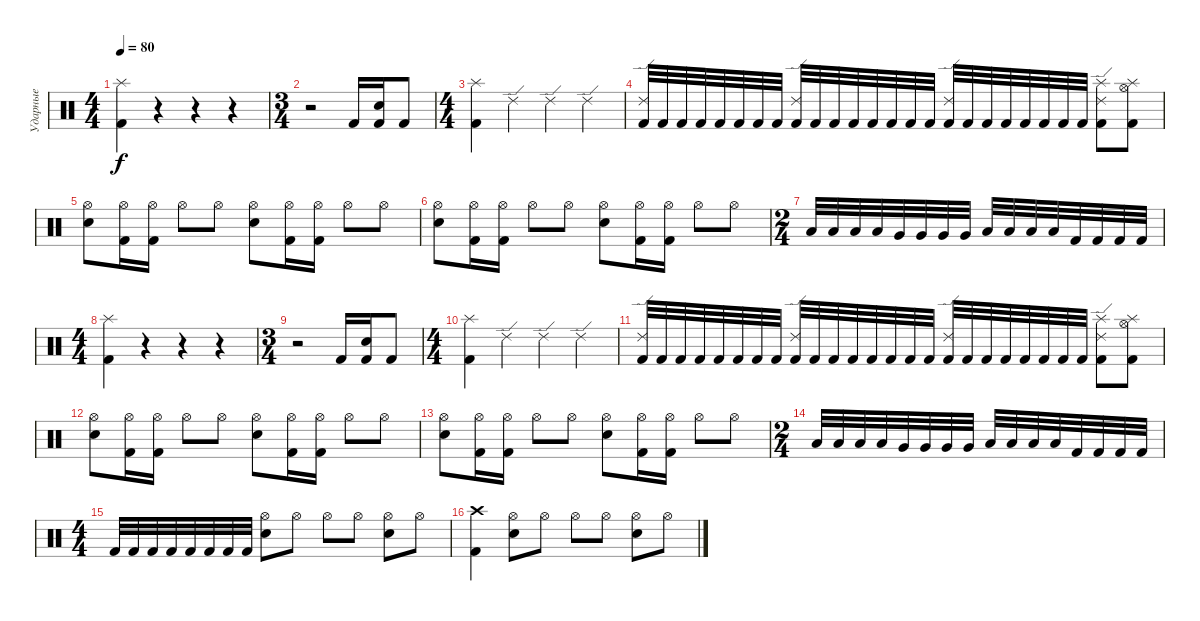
\track ("Ударные" "Ударные") {instrument percussion}
\staff {score}
\articulation defaults
\ts (4 4)
\tempo 80
\clef neutral
\ks c
("Splash (hit)" "Kick (hit) 2").4{dy f} r.4 r.4 r.4 |
\ts (3 4)
r.2 "Kick (hit) 2".16 ("Snare (hit) 2" "Kick (hit) 2").16 "Kick (hit) 2".8 |
\ts (4 4)
("Splash (hit)" "Kick (hit) 2").4 "Ride (edge) 2".4 "Ride (edge) 2".4 "Ride (edge) 2".4 |
("Kick (hit) 2" "Ride (edge) 2").32 "Kick (hit) 2".32 "Kick (hit) 2".32 "Kick (hit) 2".32 "Kick (hit) 2".32 "Kick (hit) 2".32 "Kick (hit) 2".32 "Kick (hit) 2".32 ("Kick (hit) 2" "Ride (edge) 2").32 "Kick (hit) 2".32 "Kick (hit) 2".32 "Kick (hit) 2".32 "Kick (hit) 2".32 "Kick (hit) 2".32 "Kick (hit) 2".32 "Kick (hit) 2".32 ("Kick (hit) 2" "Ride (edge) 2").32 "Kick (hit) 2".32 "Kick (hit) 2".32 "Kick (hit) 2".32 "Kick (hit) 2".32 "Kick (hit) 2".32 "Kick (hit) 2".32 "Kick (hit) 2".32 ("Splash (hit)" "Ride (edge) 2" "Kick (hit) 2").8 ("Splash (hit)" "Hi-Hat (open)" "Kick (hit) 2").8 |
("Hi-Hat (open)" "Snare (hit) 2").8 ("Hi-Hat (open)" "Kick (hit) 2").16 ("Hi-Hat (open)" "Kick (hit) 2").16 "Hi-Hat (open)".8 "Hi-Hat (open)".8 ("Hi-Hat (open)" "Snare (hit) 2").8 ("Hi-Hat (open)" "Kick (hit) 2").16 ("Hi-Hat (open)" "Kick (hit) 2").16 "Hi-Hat (open)".8 "Hi-Hat (open)".8 |
("Hi-Hat (open)" "Snare (hit) 2").8 ("Hi-Hat (open)" "Kick (hit) 2").16 ("Hi-Hat (open)" "Kick (hit) 2").16 "Hi-Hat (open)".8 "Hi-Hat (open)".8 ("Hi-Hat (open)" "Snare (hit) 2").8 ("Hi-Hat (open)" "Kick (hit) 2").16 ("Hi-Hat (open)" "Kick (hit) 2").16 "Hi-Hat (open)".8 "Hi-Hat (open)".8 |
\ts (2 4)
"Low Tom (hit)".32 "Low Tom (hit)".32 "Low Tom (hit)".32 "Low Tom (hit)".32 "Very Low Tom (hit)".32 "Very Low Tom (hit)".32 "Very Low Tom (hit)".32 "Very Low Tom (hit)".32 "Low Floor Tom (hit)".32 "Low Floor Tom (hit)".32 "Low Floor Tom (hit)".32 "Low Floor Tom (hit)".32 "Kick (hit) 2".32 "Kick (hit) 2".32 "Kick (hit) 2".32 "Kick (hit) 2".32 |
\ts (4 4)
("Splash (hit)" "Kick (hit) 2").4 r.4 r.4 r.4 |
\ts (3 4)
r.2 "Kick (hit) 2".16 ("Snare (hit) 2" "Kick (hit) 2").16 "Kick (hit) 2".8 |
\ts (4 4)
("Splash (hit)" "Kick (hit) 2").4 "Ride (edge) 2".4 "Ride (edge) 2".4 "Ride (edge) 2".4 |
("Kick (hit) 2" "Ride (edge) 2").32 "Kick (hit) 2".32 "Kick (hit) 2".32 "Kick (hit) 2".32 "Kick (hit) 2".32 "Kick (hit) 2".32 "Kick (hit) 2".32 "Kick (hit) 2".32 ("Kick (hit) 2" "Ride (edge) 2").32 "Kick (hit) 2".32 "Kick (hit) 2".32 "Kick (hit) 2".32 "Kick (hit) 2".32 "Kick (hit) 2".32 "Kick (hit) 2".32 "Kick (hit) 2".32 ("Kick (hit) 2" "Ride (edge) 2").32 "Kick (hit) 2".32 "Kick (hit) 2".32 "Kick (hit) 2".32 "Kick (hit) 2".32 "Kick (hit) 2".32 "Kick (hit) 2".32 "Kick (hit) 2".32 ("Splash (hit)" "Ride (edge) 2" "Kick (hit) 2").8 ("Splash (hit)" "Hi-Hat (open)" "Kick (hit) 2").8 |
("Hi-Hat (open)" "Snare (hit) 2").8 ("Hi-Hat (open)" "Kick (hit) 2").16 ("Hi-Hat (open)" "Kick (hit) 2").16 "Hi-Hat (open)".8 "Hi-Hat (open)".8 ("Hi-Hat (open)" "Snare (hit) 2").8 ("Hi-Hat (open)" "Kick (hit) 2").16 ("Hi-Hat (open)" "Kick (hit) 2").16 "Hi-Hat (open)".8 "Hi-Hat (open)".8 |
("Hi-Hat (open)" "Snare (hit) 2").8 ("Hi-Hat (open)" "Kick (hit) 2").16 ("Hi-Hat (open)" "Kick (hit) 2").16 "Hi-Hat (open)".8 "Hi-Hat (open)".8 ("Hi-Hat (open)" "Snare (hit) 2").8 ("Hi-Hat (open)" "Kick (hit) 2").16 ("Hi-Hat (open)" "Kick (hit) 2").16 "Hi-Hat (open)".8 "Hi-Hat (open)".8 |
\ts (2 4)
"Low Tom (hit)".32 "Low Tom (hit)".32 "Low Tom (hit)".32 "Low Tom (hit)".32 "Very Low Tom (hit)".32 "Very Low Tom (hit)".32 "Very Low Tom (hit)".32 "Very Low Tom (hit)".32 "Low Floor Tom (hit)".32 "Low Floor Tom (hit)".32 "Low Floor Tom (hit)".32 "Low Floor Tom (hit)".32 "Kick (hit) 2".32 "Kick (hit) 2".32 "Kick (hit) 2".32 "Kick (hit) 2".32 |
\ts (4 4)
"Kick (hit) 2".32 "Kick (hit) 2".32 "Kick (hit) 2".32 "Kick (hit) 2".32 "Kick (hit) 2".32 "Kick (hit) 2".32 "Kick (hit) 2".32 "Kick (hit) 2".32 ("Hi-Hat (open)" "Snare (hit) 2").8 "Hi-Hat (open)".8 "Hi-Hat (open)".8 "Hi-Hat (open)".8 ("Hi-Hat (open)" "Snare (hit) 2").8 "Hi-Hat (open)".8 |
("Crash high (hit)" "Kick (hit) 2").4 ("Hi-Hat (open)" "Snare (hit) 2").8 "Hi-Hat (open)".8 "Hi-Hat (open)".8 "Hi-Hat (open)".8 ("Hi-Hat (open)" "Snare (hit) 2").8 "Hi-Hat (open)".8
